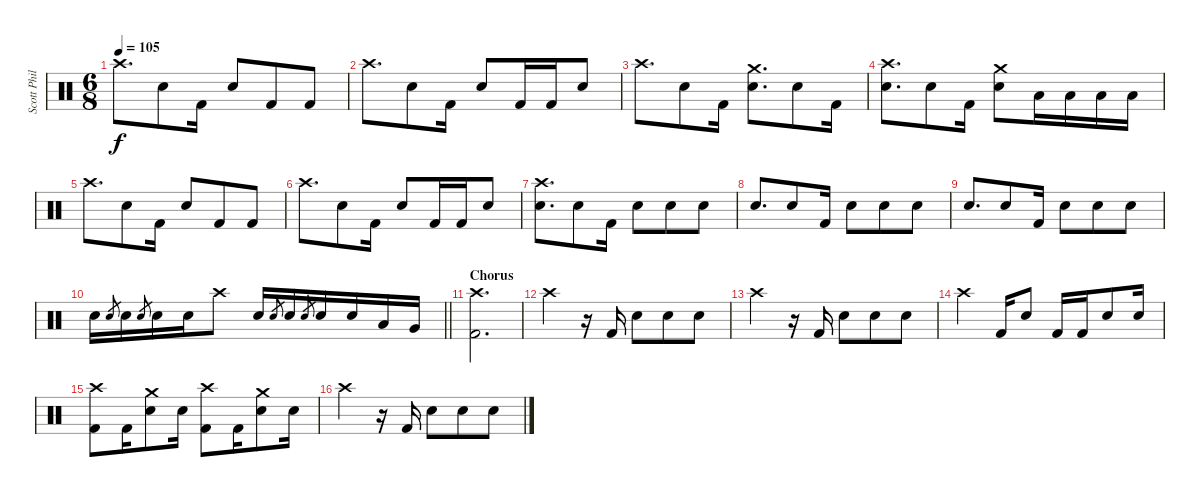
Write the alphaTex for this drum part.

\track ("Scott Phillips (Drums)" "Scott Phil") {instrument percussion}
\staff {score}
\articulation defaults
\ts (6 8)
\tempo 105
\clef neutral
\ks c "Crash high (hit)".8{d dy f} "Electric Snare (hit)".8 "Kick (hit) 2".16 "Electric Snare (hit)".8 "Kick (hit) 2".8 "Kick (hit) 2".8
|
"Crash high (hit)".8{d} "Electric Snare (hit)".8 "Kick (hit) 2".16 "Electric Snare (hit)".8 "Kick (hit) 2".16 "Kick (hit) 2".16 "Electric Snare (hit)".8 |
"Crash high (hit)".8{d} "Electric Snare (hit)".8 "Kick (hit) 2".16 ("Crash medium (hit)" "Electric Snare (hit)").8{d} "Electric Snare (hit)".8 "Kick (hit) 2".16 |
("Crash high (hit)" "Electric Snare (hit)").8{d} "Electric Snare (hit)".8 "Kick (hit) 2".16 ("Crash medium (hit)" "Electric Snare (hit)").8 "Low Tom (hit)".16 "Low Tom (hit)".16 "Low Tom (hit)".16 "Low Tom (hit)".16 |
"Crash high (hit)".8{d} "Electric Snare (hit)".8 "Kick (hit) 2".16 "Electric Snare (hit)".8 "Kick (hit) 2".8 "Kick (hit) 2".8 |
"Crash high (hit)".8{d} "Electric Snare (hit)".8 "Kick (hit) 2".16 "Electric Snare (hit)".8 "Kick (hit) 2".16 "Kick (hit) 2".16 "Electric Snare (hit)".8 |
("Crash high (hit)" "Electric Snare (hit)").8{d} "Electric Snare (hit)".8 "Kick (hit) 2".16 "Electric Snare (hit)".8 "Electric Snare (hit)".8 "Electric Snare (hit)".8 |
"Electric Snare (hit)".8{d} "Electric Snare (hit)".8 "Kick (hit) 2".16 "Electric Snare (hit)".8 "Electric Snare (hit)".8 "Electric Snare (hit)".8 |
"Electric Snare (hit)".8{d} "Electric Snare (hit)".8 "Kick (hit) 2".16 "Electric Snare (hit)".8 "Electric Snare (hit)".8 "Electric Snare (hit)".8 |
\barLineRight lightlight "Electric Snare (hit)".16 "Electric Snare (hit)".8{gr} "Electric Snare (hit)".16 "Electric Snare (hit)".8{gr} "Electric Snare (hit)".16 "Electric Snare (hit)".16 "Crash high (hit)".8 "Electric Snare (hit)".16 "Electric Snare (hit)".8{gr} "Electric Snare (hit)".16 "Electric Snare (hit)".8{gr} "Electric Snare (hit)".16 "Electric Snare (hit)".16 "Low Tom (hit)".16 "Very Low Tom (hit)".16
|
\section ("" "Chorus")
("Crash high (hit)" "Kick (hit) 2").2{d} |
"Crash high (hit)".4 r.16 "Kick (hit) 2".16 "Electric Snare (hit)".8 "Electric Snare (hit)".8 "Electric Snare (hit)".8 |
"Crash high (hit)".4 r.16 "Kick (hit) 2".16 "Electric Snare (hit)".8 "Electric Snare (hit)".8 "Electric Snare (hit)".8 |
"Crash high (hit)".4 "Kick (hit) 2".16 "Electric Snare (hit)".8 "Kick (hit) 2".16 "Kick (hit) 2".16 "Electric Snare (hit)".8 "Electric Snare (hit)".16 |
("Crash high (hit)" "Kick (hit) 2").8 "Kick (hit) 2".16 ("Crash medium (hit)" "Electric Snare (hit)").8 "Electric Snare (hit)".16 ("Crash high (hit)" "Kick (hit) 2").8 "Kick (hit) 2".16 ("Crash medium (hit)" "Electric Snare (hit)").8 "Electric Snare (hit)".16 |
"Crash high (hit)".4 r.16 "Kick (hit) 2".16 "Electric Snare (hit)".8 "Electric Snare (hit)".8 "Electric Snare (hit)".8
